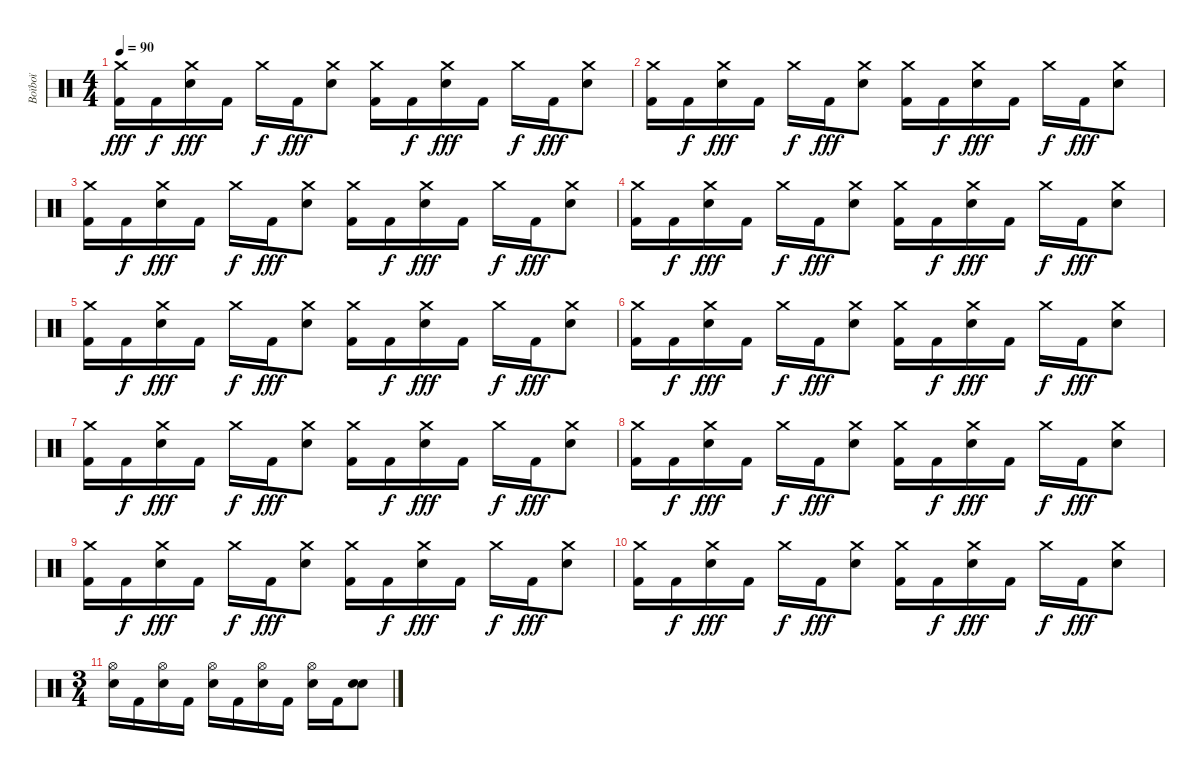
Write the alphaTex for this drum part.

\track ("Boïboï" "Boïboï") {instrument percussion}
\staff {score}
\articulation defaults
\ts (4 4)
\tempo 90
\clef neutral
\ks c
("Crash medium (hit)" "Kick (hit) 2").16{dy fff} "Kick (hit) 2".16{dy f} ("Crash medium (hit)" "Electric Snare (hit)").16{dy fff} "Kick (hit) 2".16 "Crash medium (hit)".16{dy f} "Kick (hit) 2".16{dy fff} ("Crash medium (hit)" "Electric Snare (hit)").8 ("Crash medium (hit)" "Kick (hit) 2").16 "Kick (hit) 2".16{dy f} ("Crash medium (hit)" "Electric Snare (hit)").16{dy fff} "Kick (hit) 2".16 "Crash medium (hit)".16{dy f} "Kick (hit) 2".16{dy fff} ("Crash medium (hit)" "Electric Snare (hit)").8 |
("Crash medium (hit)" "Kick (hit) 2").16 "Kick (hit) 2".16{dy f} ("Crash medium (hit)" "Electric Snare (hit)").16{dy fff} "Kick (hit) 2".16 "Crash medium (hit)".16{dy f} "Kick (hit) 2".16{dy fff} ("Crash medium (hit)" "Electric Snare (hit)").8 ("Crash medium (hit)" "Kick (hit) 2").16 "Kick (hit) 2".16{dy f} ("Crash medium (hit)" "Electric Snare (hit)").16{dy fff} "Kick (hit) 2".16 "Crash medium (hit)".16{dy f} "Kick (hit) 2".16{dy fff} ("Crash medium (hit)" "Electric Snare (hit)").8 |
("Crash medium (hit)" "Kick (hit) 2").16 "Kick (hit) 2".16{dy f} ("Crash medium (hit)" "Electric Snare (hit)").16{dy fff} "Kick (hit) 2".16 "Crash medium (hit)".16{dy f} "Kick (hit) 2".16{dy fff} ("Crash medium (hit)" "Electric Snare (hit)").8 ("Crash medium (hit)" "Kick (hit) 2").16 "Kick (hit) 2".16{dy f} ("Crash medium (hit)" "Electric Snare (hit)").16{dy fff} "Kick (hit) 2".16 "Crash medium (hit)".16{dy f} "Kick (hit) 2".16{dy fff} ("Crash medium (hit)" "Electric Snare (hit)").8 |
("Crash medium (hit)" "Kick (hit) 2").16 "Kick (hit) 2".16{dy f} ("Crash medium (hit)" "Electric Snare (hit)").16{dy fff} "Kick (hit) 2".16 "Crash medium (hit)".16{dy f} "Kick (hit) 2".16{dy fff} ("Crash medium (hit)" "Electric Snare (hit)").8 ("Crash medium (hit)" "Kick (hit) 2").16 "Kick (hit) 2".16{dy f} ("Crash medium (hit)" "Electric Snare (hit)").16{dy fff} "Kick (hit) 2".16 "Crash medium (hit)".16{dy f} "Kick (hit) 2".16{dy fff} ("Crash medium (hit)" "Electric Snare (hit)").8 |
("Crash medium (hit)" "Kick (hit) 2").16 "Kick (hit) 2".16{dy f} ("Crash medium (hit)" "Electric Snare (hit)").16{dy fff} "Kick (hit) 2".16 "Crash medium (hit)".16{dy f} "Kick (hit) 2".16{dy fff} ("Crash medium (hit)" "Electric Snare (hit)").8 ("Crash medium (hit)" "Kick (hit) 2").16 "Kick (hit) 2".16{dy f} ("Crash medium (hit)" "Electric Snare (hit)").16{dy fff} "Kick (hit) 2".16 "Crash medium (hit)".16{dy f} "Kick (hit) 2".16{dy fff} ("Crash medium (hit)" "Electric Snare (hit)").8 |
("Crash medium (hit)" "Kick (hit) 2").16 "Kick (hit) 2".16{dy f} ("Crash medium (hit)" "Electric Snare (hit)").16{dy fff} "Kick (hit) 2".16 "Crash medium (hit)".16{dy f} "Kick (hit) 2".16{dy fff} ("Crash medium (hit)" "Electric Snare (hit)").8 ("Crash medium (hit)" "Kick (hit) 2").16 "Kick (hit) 2".16{dy f} ("Crash medium (hit)" "Electric Snare (hit)").16{dy fff} "Kick (hit) 2".16 "Crash medium (hit)".16{dy f} "Kick (hit) 2".16{dy fff} ("Crash medium (hit)" "Electric Snare (hit)").8 |
("Crash medium (hit)" "Kick (hit) 2").16 "Kick (hit) 2".16{dy f} ("Crash medium (hit)" "Electric Snare (hit)").16{dy fff} "Kick (hit) 2".16 "Crash medium (hit)".16{dy f} "Kick (hit) 2".16{dy fff} ("Crash medium (hit)" "Electric Snare (hit)").8 ("Crash medium (hit)" "Kick (hit) 2").16 "Kick (hit) 2".16{dy f} ("Crash medium (hit)" "Electric Snare (hit)").16{dy fff} "Kick (hit) 2".16 "Crash medium (hit)".16{dy f} "Kick (hit) 2".16{dy fff} ("Crash medium (hit)" "Electric Snare (hit)").8 |
("Crash medium (hit)" "Kick (hit) 2").16 "Kick (hit) 2".16{dy f} ("Crash medium (hit)" "Electric Snare (hit)").16{dy fff} "Kick (hit) 2".16 "Crash medium (hit)".16{dy f} "Kick (hit) 2".16{dy fff} ("Crash medium (hit)" "Electric Snare (hit)").8 ("Crash medium (hit)" "Kick (hit) 2").16 "Kick (hit) 2".16{dy f} ("Crash medium (hit)" "Electric Snare (hit)").16{dy fff} "Kick (hit) 2".16 "Crash medium (hit)".16{dy f} "Kick (hit) 2".16{dy fff} ("Crash medium (hit)" "Electric Snare (hit)").8 |
("Crash medium (hit)" "Kick (hit) 2").16 "Kick (hit) 2".16{dy f} ("Crash medium (hit)" "Electric Snare (hit)").16{dy fff} "Kick (hit) 2".16 "Crash medium (hit)".16{dy f} "Kick (hit) 2".16{dy fff} ("Crash medium (hit)" "Electric Snare (hit)").8 ("Crash medium (hit)" "Kick (hit) 2").16 "Kick (hit) 2".16{dy f} ("Crash medium (hit)" "Electric Snare (hit)").16{dy fff} "Kick (hit) 2".16 "Crash medium (hit)".16{dy f} "Kick (hit) 2".16{dy fff} ("Crash medium (hit)" "Electric Snare (hit)").8 |
("Crash medium (hit)" "Kick (hit) 2").16 "Kick (hit) 2".16{dy f} ("Crash medium (hit)" "Electric Snare (hit)").16{dy fff} "Kick (hit) 2".16 "Crash medium (hit)".16{dy f} "Kick (hit) 2".16{dy fff} ("Crash medium (hit)" "Electric Snare (hit)").8 ("Crash medium (hit)" "Kick (hit) 2").16 "Kick (hit) 2".16{dy f} ("Crash medium (hit)" "Electric Snare (hit)").16{dy fff} "Kick (hit) 2".16 "Crash medium (hit)".16{dy f} "Kick (hit) 2".16{dy fff} ("Crash medium (hit)" "Electric Snare (hit)").8 |
\ts (3 4)
("Hi-Hat (open)" "Electric Snare (hit)").16 "Kick (hit) 2".16 ("Hi-Hat (open)" "Electric Snare (hit)").16 "Kick (hit) 2".16 ("Hi-Hat (open)" "Electric Snare (hit)").16 "Kick (hit) 2".16 ("Hi-Hat (open)" "Electric Snare (hit)").16 "Kick (hit) 2".16 ("Hi-Hat (open)" "Electric Snare (hit)").16 "Kick (hit) 2".16 ("Electric Snare (hit)" "Snare (hit) 2").8
